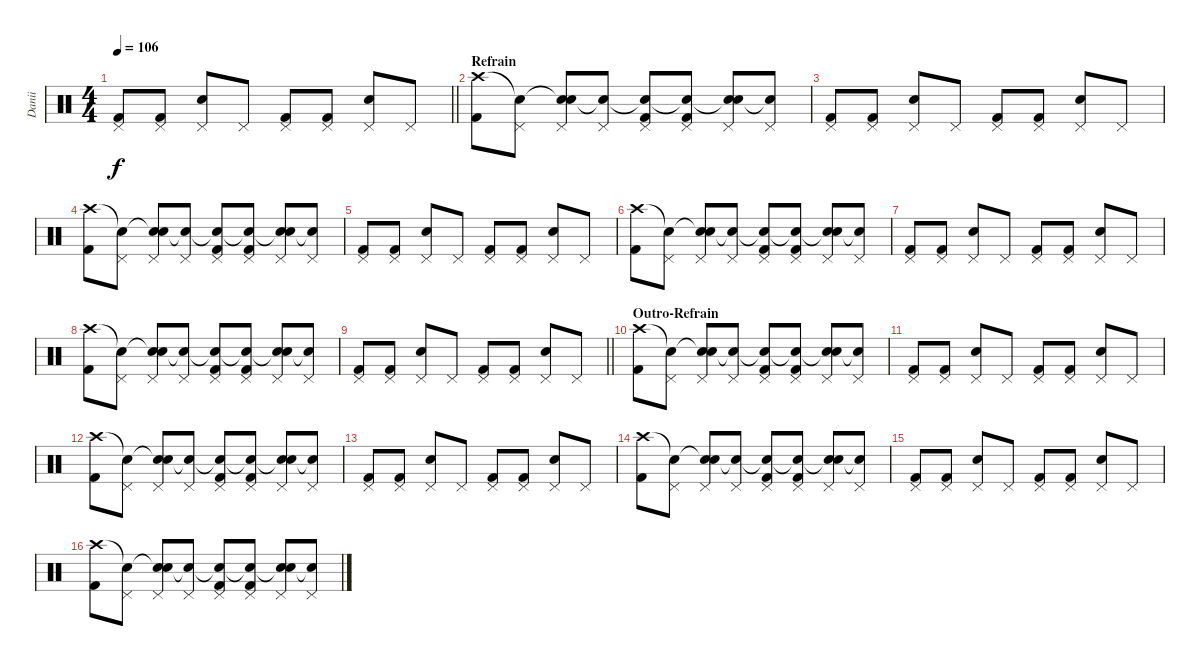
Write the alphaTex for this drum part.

\track ("Danii" "Danii") {instrument percussion}
\staff {score}
\articulation defaults
\ts (4 4)
\tempo 106
\clef neutral
\barLineRight lightlight
\ks c
("Pedal Hi-Hat (hit)" "Kick (hit) 2").8{dy f} ("Pedal Hi-Hat (hit)" "Kick (hit) 2").8 ("Pedal Hi-Hat (hit)" "Snare (hit) 2").8 "Pedal Hi-Hat (hit)".8 ("Pedal Hi-Hat (hit)" "Kick (hit) 2").8 ("Pedal Hi-Hat (hit)" "Kick (hit) 2").8 ("Pedal Hi-Hat (hit)" "Snare (hit) 2").8 "Pedal Hi-Hat (hit)".8 |
\section ("" "Refrain")
("Crash high (hit)" "Kick (hit) 2").8{volume 16} ("Snare (hit)"{t} "Pedal Hi-Hat (hit)").8 ("Snare (hit)"{t} "Pedal Hi-Hat (hit)" "Snare (hit) 2").8 ("Snare (hit)"{t} "Pedal Hi-Hat (hit)").8 ("Snare (hit)"{t} "Pedal Hi-Hat (hit)" "Kick (hit) 2").8 ("Snare (hit)"{t} "Pedal Hi-Hat (hit)" "Kick (hit) 2").8 ("Snare (hit)"{t} "Pedal Hi-Hat (hit)" "Snare (hit) 2").8 ("Snare (hit)"{t} "Pedal Hi-Hat (hit)").8 |
("Pedal Hi-Hat (hit)" "Kick (hit) 2").8 ("Pedal Hi-Hat (hit)" "Kick (hit) 2").8 ("Pedal Hi-Hat (hit)" "Snare (hit) 2").8 "Pedal Hi-Hat (hit)".8 ("Pedal Hi-Hat (hit)" "Kick (hit) 2").8 ("Pedal Hi-Hat (hit)" "Kick (hit) 2").8 ("Pedal Hi-Hat (hit)" "Snare (hit) 2").8 "Pedal Hi-Hat (hit)".8 |
("Crash high (hit)" "Kick (hit) 2").8{volume 16} ("Snare (hit)"{t} "Pedal Hi-Hat (hit)").8 ("Snare (hit)"{t} "Pedal Hi-Hat (hit)" "Snare (hit) 2").8 ("Snare (hit)"{t} "Pedal Hi-Hat (hit)").8 ("Snare (hit)"{t} "Pedal Hi-Hat (hit)" "Kick (hit) 2").8 ("Snare (hit)"{t} "Pedal Hi-Hat (hit)" "Kick (hit) 2").8 ("Snare (hit)"{t} "Pedal Hi-Hat (hit)" "Snare (hit) 2").8 ("Snare (hit)"{t} "Pedal Hi-Hat (hit)").8 |
("Pedal Hi-Hat (hit)" "Kick (hit) 2").8 ("Pedal Hi-Hat (hit)" "Kick (hit) 2").8 ("Pedal Hi-Hat (hit)" "Snare (hit) 2").8 "Pedal Hi-Hat (hit)".8 ("Pedal Hi-Hat (hit)" "Kick (hit) 2").8 ("Pedal Hi-Hat (hit)" "Kick (hit) 2").8 ("Pedal Hi-Hat (hit)" "Snare (hit) 2").8 "Pedal Hi-Hat (hit)".8 |
("Crash high (hit)" "Kick (hit) 2").8{volume 16} ("Snare (hit)"{t} "Pedal Hi-Hat (hit)").8 ("Snare (hit)"{t} "Pedal Hi-Hat (hit)" "Snare (hit) 2").8 ("Snare (hit)"{t} "Pedal Hi-Hat (hit)").8 ("Snare (hit)"{t} "Pedal Hi-Hat (hit)" "Kick (hit) 2").8 ("Snare (hit)"{t} "Pedal Hi-Hat (hit)" "Kick (hit) 2").8 ("Snare (hit)"{t} "Pedal Hi-Hat (hit)" "Snare (hit) 2").8 ("Snare (hit)"{t} "Pedal Hi-Hat (hit)").8 |
("Pedal Hi-Hat (hit)" "Kick (hit) 2").8 ("Pedal Hi-Hat (hit)" "Kick (hit) 2").8 ("Pedal Hi-Hat (hit)" "Snare (hit) 2").8 "Pedal Hi-Hat (hit)".8 ("Pedal Hi-Hat (hit)" "Kick (hit) 2").8 ("Pedal Hi-Hat (hit)" "Kick (hit) 2").8 ("Pedal Hi-Hat (hit)" "Snare (hit) 2").8 "Pedal Hi-Hat (hit)".8 |
("Crash high (hit)" "Kick (hit) 2").8{volume 16} ("Snare (hit)"{t} "Pedal Hi-Hat (hit)").8 ("Snare (hit)"{t} "Pedal Hi-Hat (hit)" "Snare (hit) 2").8 ("Snare (hit)"{t} "Pedal Hi-Hat (hit)").8 ("Snare (hit)"{t} "Pedal Hi-Hat (hit)" "Kick (hit) 2").8 ("Snare (hit)"{t} "Pedal Hi-Hat (hit)" "Kick (hit) 2").8 ("Snare (hit)"{t} "Pedal Hi-Hat (hit)" "Snare (hit) 2").8 ("Snare (hit)"{t} "Pedal Hi-Hat (hit)").8 |
\barLineRight lightlight
("Pedal Hi-Hat (hit)" "Kick (hit) 2").8 ("Pedal Hi-Hat (hit)" "Kick (hit) 2").8 ("Pedal Hi-Hat (hit)" "Snare (hit) 2").8 "Pedal Hi-Hat (hit)".8 ("Pedal Hi-Hat (hit)" "Kick (hit) 2").8 ("Pedal Hi-Hat (hit)" "Kick (hit) 2").8 ("Pedal Hi-Hat (hit)" "Snare (hit) 2").8 "Pedal Hi-Hat (hit)".8 |
\section ("" "Outro-Refrain")
("Crash high (hit)" "Kick (hit) 2").8{volume 16} ("Snare (hit)"{t} "Pedal Hi-Hat (hit)").8 ("Snare (hit)"{t} "Pedal Hi-Hat (hit)" "Snare (hit) 2").8 ("Snare (hit)"{t} "Pedal Hi-Hat (hit)").8 ("Snare (hit)"{t} "Pedal Hi-Hat (hit)" "Kick (hit) 2").8 ("Snare (hit)"{t} "Pedal Hi-Hat (hit)" "Kick (hit) 2").8 ("Snare (hit)"{t} "Pedal Hi-Hat (hit)" "Snare (hit) 2").8 ("Snare (hit)"{t} "Pedal Hi-Hat (hit)").8 |
("Pedal Hi-Hat (hit)" "Kick (hit) 2").8 ("Pedal Hi-Hat (hit)" "Kick (hit) 2").8 ("Pedal Hi-Hat (hit)" "Snare (hit) 2").8 "Pedal Hi-Hat (hit)".8 ("Pedal Hi-Hat (hit)" "Kick (hit) 2").8 ("Pedal Hi-Hat (hit)" "Kick (hit) 2").8 ("Pedal Hi-Hat (hit)" "Snare (hit) 2").8 "Pedal Hi-Hat (hit)".8 |
("Crash high (hit)" "Kick (hit) 2").8{volume 16} ("Snare (hit)"{t} "Pedal Hi-Hat (hit)").8 ("Snare (hit)"{t} "Pedal Hi-Hat (hit)" "Snare (hit) 2").8 ("Snare (hit)"{t} "Pedal Hi-Hat (hit)").8 ("Snare (hit)"{t} "Pedal Hi-Hat (hit)" "Kick (hit) 2").8 ("Snare (hit)"{t} "Pedal Hi-Hat (hit)" "Kick (hit) 2").8 ("Snare (hit)"{t} "Pedal Hi-Hat (hit)" "Snare (hit) 2").8 ("Snare (hit)"{t} "Pedal Hi-Hat (hit)").8 |
("Pedal Hi-Hat (hit)" "Kick (hit) 2").8 ("Pedal Hi-Hat (hit)" "Kick (hit) 2").8 ("Pedal Hi-Hat (hit)" "Snare (hit) 2").8 "Pedal Hi-Hat (hit)".8 ("Pedal Hi-Hat (hit)" "Kick (hit) 2").8 ("Pedal Hi-Hat (hit)" "Kick (hit) 2").8 ("Pedal Hi-Hat (hit)" "Snare (hit) 2").8 "Pedal Hi-Hat (hit)".8 |
("Crash high (hit)" "Kick (hit) 2").8{volume 16} ("Snare (hit)"{t} "Pedal Hi-Hat (hit)").8 ("Snare (hit)"{t} "Pedal Hi-Hat (hit)" "Snare (hit) 2").8 ("Snare (hit)"{t} "Pedal Hi-Hat (hit)").8 ("Snare (hit)"{t} "Pedal Hi-Hat (hit)" "Kick (hit) 2").8 ("Snare (hit)"{t} "Pedal Hi-Hat (hit)" "Kick (hit) 2").8 ("Snare (hit)"{t} "Pedal Hi-Hat (hit)" "Snare (hit) 2").8 ("Snare (hit)"{t} "Pedal Hi-Hat (hit)").8 |
("Pedal Hi-Hat (hit)" "Kick (hit) 2").8 ("Pedal Hi-Hat (hit)" "Kick (hit) 2").8 ("Pedal Hi-Hat (hit)" "Snare (hit) 2").8 "Pedal Hi-Hat (hit)".8 ("Pedal Hi-Hat (hit)" "Kick (hit) 2").8 ("Pedal Hi-Hat (hit)" "Kick (hit) 2").8 ("Pedal Hi-Hat (hit)" "Snare (hit) 2").8 "Pedal Hi-Hat (hit)".8 |
("Crash high (hit)" "Kick (hit) 2").8{volume 16} ("Snare (hit)"{t} "Pedal Hi-Hat (hit)").8 ("Snare (hit)"{t} "Pedal Hi-Hat (hit)" "Snare (hit) 2").8 ("Snare (hit)"{t} "Pedal Hi-Hat (hit)").8 ("Snare (hit)"{t} "Pedal Hi-Hat (hit)" "Kick (hit) 2").8 ("Snare (hit)"{t} "Pedal Hi-Hat (hit)" "Kick (hit) 2").8 ("Snare (hit)"{t} "Pedal Hi-Hat (hit)" "Snare (hit) 2").8 ("Snare (hit)"{t} "Pedal Hi-Hat (hit)").8
